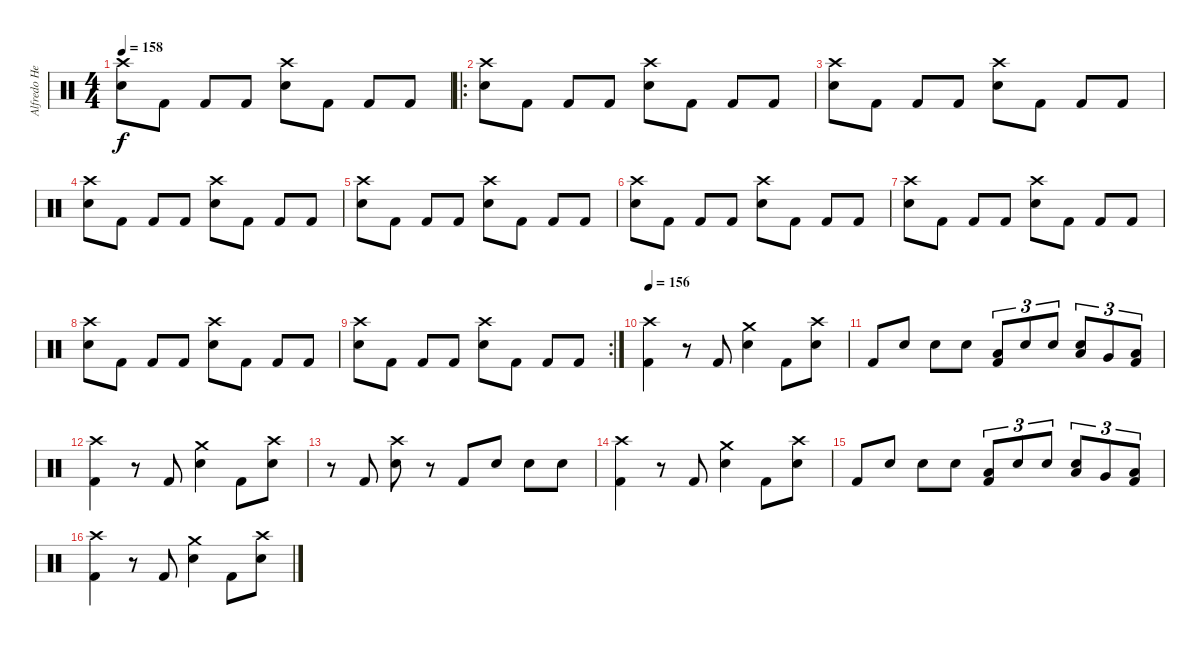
\track ("Alfredo Hernández" "Alfredo He") {instrument percussion}
\staff {score}
\articulation defaults
\ts (4 4)
\tempo 158
\clef neutral
\ks c
("Crash high (hit)" "Electric Snare (hit)").8{dy f} "Kick (hit) 2".8 "Kick (hit) 2".8 "Kick (hit) 2".8 ("Crash high (hit)" "Electric Snare (hit)").8 "Kick (hit) 2".8 "Kick (hit) 2".8 "Kick (hit) 2".8 |
\ro
("Crash high (hit)" "Electric Snare (hit)").8 "Kick (hit) 2".8 "Kick (hit) 2".8 "Kick (hit) 2".8 ("Crash high (hit)" "Electric Snare (hit)").8 "Kick (hit) 2".8 "Kick (hit) 2".8 "Kick (hit) 2".8 |
("Crash high (hit)" "Electric Snare (hit)").8 "Kick (hit) 2".8 "Kick (hit) 2".8 "Kick (hit) 2".8 ("Crash high (hit)" "Electric Snare (hit)").8 "Kick (hit) 2".8 "Kick (hit) 2".8 "Kick (hit) 2".8 |
("Crash high (hit)" "Electric Snare (hit)").8 "Kick (hit) 2".8 "Kick (hit) 2".8 "Kick (hit) 2".8 ("Crash high (hit)" "Electric Snare (hit)").8 "Kick (hit) 2".8 "Kick (hit) 2".8 "Kick (hit) 2".8 |
("Crash high (hit)" "Electric Snare (hit)").8 "Kick (hit) 2".8 "Kick (hit) 2".8 "Kick (hit) 2".8 ("Crash high (hit)" "Electric Snare (hit)").8 "Kick (hit) 2".8 "Kick (hit) 2".8 "Kick (hit) 2".8 |
("Crash high (hit)" "Electric Snare (hit)").8 "Kick (hit) 2".8 "Kick (hit) 2".8 "Kick (hit) 2".8 ("Crash high (hit)" "Electric Snare (hit)").8 "Kick (hit) 2".8 "Kick (hit) 2".8 "Kick (hit) 2".8 |
("Crash high (hit)" "Electric Snare (hit)").8 "Kick (hit) 2".8 "Kick (hit) 2".8 "Kick (hit) 2".8 ("Crash high (hit)" "Electric Snare (hit)").8 "Kick (hit) 2".8 "Kick (hit) 2".8 "Kick (hit) 2".8 |
("Crash high (hit)" "Electric Snare (hit)").8 "Kick (hit) 2".8 "Kick (hit) 2".8 "Kick (hit) 2".8 ("Crash high (hit)" "Electric Snare (hit)").8 "Kick (hit) 2".8 "Kick (hit) 2".8 "Kick (hit) 2".8 |
\rc 2
("Crash high (hit)" "Electric Snare (hit)").8 "Kick (hit) 2".8 "Kick (hit) 2".8 "Kick (hit) 2".8 ("Crash high (hit)" "Electric Snare (hit)").8 "Kick (hit) 2".8 "Kick (hit) 2".8 "Kick (hit) 2".8 |
\tempo 156
("Crash high (hit)" "Kick (hit) 2").4 r.8 "Kick (hit) 2".8 ("Electric Snare (hit)" "Crash medium (hit)").4 "Kick (hit) 2".8 ("Electric Snare (hit)" "Crash high (hit)").8 |
"Kick (hit) 2".8 "Electric Snare (hit)".8 "Electric Snare (hit)".8 "Electric Snare (hit)".8 ("Low Floor Tom (hit)" "Kick (hit) 2").8{tu (3 2)} "Electric Snare (hit)".8{tu (3 2)} "Electric Snare (hit)".8{tu (3 2)} ("Electric Snare (hit)" "Low Tom (hit)").8{tu (3 2)} "Very Low Tom (hit)".8{tu (3 2)} ("Low Floor Tom (hit)" "Kick (hit) 2").8{tu (3 2)} |
("Crash high (hit)" "Kick (hit) 2").4 r.8 "Kick (hit) 2".8 ("Electric Snare (hit)" "Crash medium (hit)").4 "Kick (hit) 2".8 ("Electric Snare (hit)" "Crash high (hit)").8 |
r.8 "Kick (hit) 2".8 ("Crash high (hit)" "Electric Snare (hit)").8 r.8 "Kick (hit) 2".8 "Electric Snare (hit)".8 "Electric Snare (hit)".8 "Electric Snare (hit)".8 |
("Crash high (hit)" "Kick (hit) 2").4 r.8 "Kick (hit) 2".8 ("Electric Snare (hit)" "Crash medium (hit)").4 "Kick (hit) 2".8 ("Electric Snare (hit)" "Crash high (hit)").8 |
"Kick (hit) 2".8 "Electric Snare (hit)".8 "Electric Snare (hit)".8 "Electric Snare (hit)".8 ("Low Floor Tom (hit)" "Kick (hit) 2").8{tu (3 2)} "Electric Snare (hit)".8{tu (3 2)} "Electric Snare (hit)".8{tu (3 2)} ("Electric Snare (hit)" "Low Tom (hit)").8{tu (3 2)} "Very Low Tom (hit)".8{tu (3 2)} ("Low Floor Tom (hit)" "Kick (hit) 2").8{tu (3 2)} |
("Crash high (hit)" "Kick (hit) 2").4 r.8 "Kick (hit) 2".8 ("Electric Snare (hit)" "Crash medium (hit)").4 "Kick (hit) 2".8 ("Electric Snare (hit)" "Crash high (hit)").8
